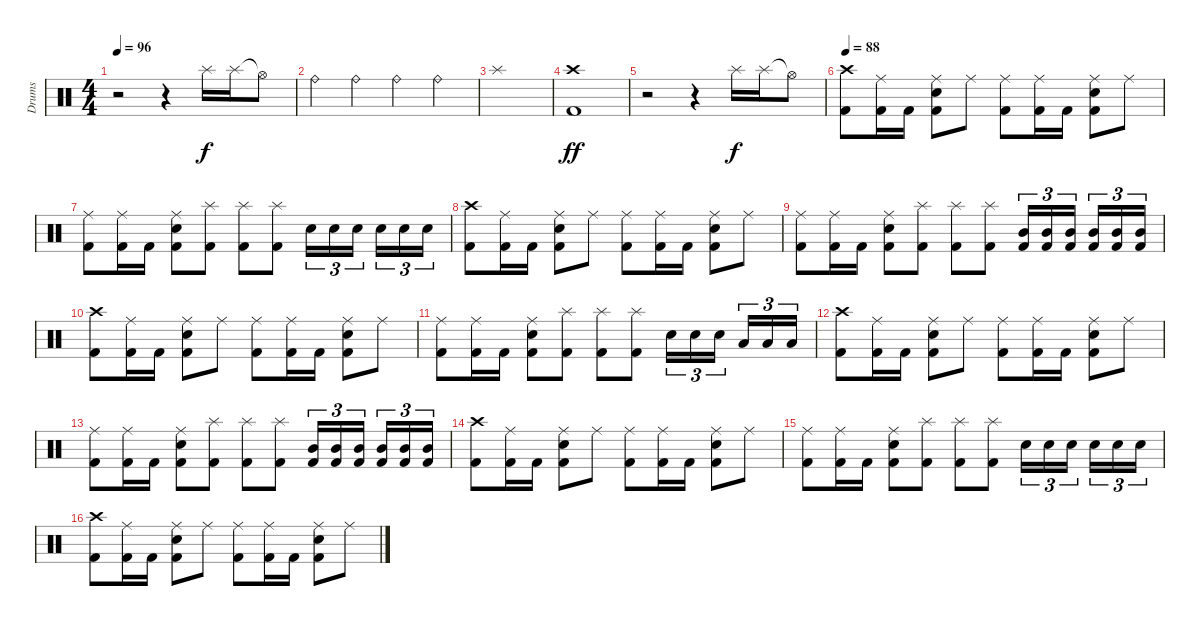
\track ("Drums" "Drums") {instrument percussion}
\staff {score}
\articulation defaults
\ts (4 4)
\tempo 96
\clef neutral
\ks c
r.2{dy f} r.4 "Splash (hit)".16 "Splash (hit)".16 "Hi-Hat (open)"{t}.8 |
"Ride (bell)".4 "Ride (bell)".4 "Ride (bell)".4 "Ride (bell)".4 |
"Splash (hit)".1 |
("Crash high (hit)" "Kick (hit) 2").1{dy ff} |
r.2 r.4 "Splash (hit)".16{dy f} "Splash (hit)".16 "Hi-Hat (open)"{t}.8 |
\tempo 88
("Crash high (hit)" "Kick (hit) 2").8 ("Ride (middle)" "Kick (hit) 2").16 "Kick (hit) 2".16 ("Ride (middle)" "Electric Snare (hit)" "Kick (hit) 2").8 "Ride (middle)".8 ("Ride (middle)" "Kick (hit) 2").8 ("Ride (middle)" "Kick (hit) 2").16 "Kick (hit) 2".16 ("Ride (middle)" "Electric Snare (hit)" "Kick (hit) 2").8 "Ride (middle)".8 |
("Ride (middle)" "Kick (hit) 2").8 ("Ride (middle)" "Kick (hit) 2").16 "Kick (hit) 2".16 ("Ride (middle)" "Electric Snare (hit)" "Kick (hit) 2").8 ("Splash (hit)" "Kick (hit) 2").8 ("Splash (hit)" "Kick (hit) 2").8 ("Splash (hit)" "Kick (hit) 2").8 "Electric Snare (hit)".16{tu (3 2)} "Electric Snare (hit)".16{tu (3 2)} "Electric Snare (hit)".16{tu (3 2) beam splitsecondary} "Electric Snare (hit)".16{tu (3 2)} "Electric Snare (hit)".16{tu (3 2)} "Electric Snare (hit)".16{tu (3 2)} |
("Crash high (hit)" "Kick (hit) 2").8 ("Ride (middle)" "Kick (hit) 2").16 "Kick (hit) 2".16 ("Ride (middle)" "Electric Snare (hit)" "Kick (hit) 2").8 "Ride (middle)".8 ("Ride (middle)" "Kick (hit) 2").8 ("Ride (middle)" "Kick (hit) 2").16 "Kick (hit) 2".16 ("Ride (middle)" "Electric Snare (hit)" "Kick (hit) 2").8 "Ride (middle)".8 |
("Ride (middle)" "Kick (hit) 2").8 ("Ride (middle)" "Kick (hit) 2").16 "Kick (hit) 2".16 ("Ride (middle)" "Electric Snare (hit)" "Kick (hit) 2").8 ("Splash (hit)" "Kick (hit) 2").8 ("Splash (hit)" "Kick (hit) 2").8 ("Splash (hit)" "Kick (hit) 2").8 ("Mid Tom (hit)" "Kick (hit) 2").16{tu (3 2)} ("Mid Tom (hit)" "Kick (hit) 2").16{tu (3 2)} ("Mid Tom (hit)" "Kick (hit) 2").16{tu (3 2) beam splitsecondary} ("Mid Tom (hit)" "Kick (hit) 2").16{tu (3 2)} ("Mid Tom (hit)" "Kick (hit) 2").16{tu (3 2)} ("Mid Tom (hit)" "Kick (hit) 2").16{tu (3 2)} |
("Crash high (hit)" "Kick (hit) 2").8 ("Ride (middle)" "Kick (hit) 2").16 "Kick (hit) 2".16 ("Ride (middle)" "Electric Snare (hit)" "Kick (hit) 2").8 "Ride (middle)".8 ("Ride (middle)" "Kick (hit) 2").8 ("Ride (middle)" "Kick (hit) 2").16 "Kick (hit) 2".16 ("Ride (middle)" "Electric Snare (hit)" "Kick (hit) 2").8 "Ride (middle)".8 |
("Ride (middle)" "Kick (hit) 2").8 ("Ride (middle)" "Kick (hit) 2").16 "Kick (hit) 2".16 ("Ride (middle)" "Electric Snare (hit)" "Kick (hit) 2").8 ("Splash (hit)" "Kick (hit) 2").8 ("Splash (hit)" "Kick (hit) 2").8 ("Splash (hit)" "Kick (hit) 2").8 "Electric Snare (hit)".16{tu (3 2)} "Electric Snare (hit)".16{tu (3 2)} "Electric Snare (hit)".16{tu (3 2) beam splitsecondary} "Low Tom (hit)".16{tu (3 2)} "Low Tom (hit)".16{tu (3 2)} "Low Tom (hit)".16{tu (3 2)} |
("Crash high (hit)" "Kick (hit) 2").8 ("Ride (middle)" "Kick (hit) 2").16 "Kick (hit) 2".16 ("Ride (middle)" "Electric Snare (hit)" "Kick (hit) 2").8 "Ride (middle)".8 ("Ride (middle)" "Kick (hit) 2").8 ("Ride (middle)" "Kick (hit) 2").16 "Kick (hit) 2".16 ("Ride (middle)" "Electric Snare (hit)" "Kick (hit) 2").8 "Ride (middle)".8 |
("Ride (middle)" "Kick (hit) 2").8 ("Ride (middle)" "Kick (hit) 2").16 "Kick (hit) 2".16 ("Ride (middle)" "Electric Snare (hit)" "Kick (hit) 2").8 ("Splash (hit)" "Kick (hit) 2").8 ("Splash (hit)" "Kick (hit) 2").8 ("Splash (hit)" "Kick (hit) 2").8 ("Mid Tom (hit)" "Kick (hit) 2").16{tu (3 2)} ("Mid Tom (hit)" "Kick (hit) 2").16{tu (3 2)} ("Mid Tom (hit)" "Kick (hit) 2").16{tu (3 2) beam splitsecondary} ("Mid Tom (hit)" "Kick (hit) 2").16{tu (3 2)} ("Mid Tom (hit)" "Kick (hit) 2").16{tu (3 2)} ("Mid Tom (hit)" "Kick (hit) 2").16{tu (3 2)} |
("Crash high (hit)" "Kick (hit) 2").8 ("Ride (middle)" "Kick (hit) 2").16 "Kick (hit) 2".16 ("Ride (middle)" "Electric Snare (hit)" "Kick (hit) 2").8 "Ride (middle)".8 ("Ride (middle)" "Kick (hit) 2").8 ("Ride (middle)" "Kick (hit) 2").16 "Kick (hit) 2".16 ("Ride (middle)" "Electric Snare (hit)" "Kick (hit) 2").8 "Ride (middle)".8 |
("Ride (middle)" "Kick (hit) 2").8 ("Ride (middle)" "Kick (hit) 2").16 "Kick (hit) 2".16 ("Ride (middle)" "Electric Snare (hit)" "Kick (hit) 2").8 ("Splash (hit)" "Kick (hit) 2").8 ("Splash (hit)" "Kick (hit) 2").8 ("Splash (hit)" "Kick (hit) 2").8 "Electric Snare (hit)".16{tu (3 2)} "Electric Snare (hit)".16{tu (3 2)} "Electric Snare (hit)".16{tu (3 2) beam splitsecondary} "Electric Snare (hit)".16{tu (3 2)} "Electric Snare (hit)".16{tu (3 2)} "Electric Snare (hit)".16{tu (3 2)} |
("Crash high (hit)" "Kick (hit) 2").8 ("Ride (middle)" "Kick (hit) 2").16 "Kick (hit) 2".16 ("Ride (middle)" "Electric Snare (hit)" "Kick (hit) 2").8 "Ride (middle)".8 ("Ride (middle)" "Kick (hit) 2").8 ("Ride (middle)" "Kick (hit) 2").16 "Kick (hit) 2".16 ("Ride (middle)" "Electric Snare (hit)" "Kick (hit) 2").8 "Ride (middle)".8
